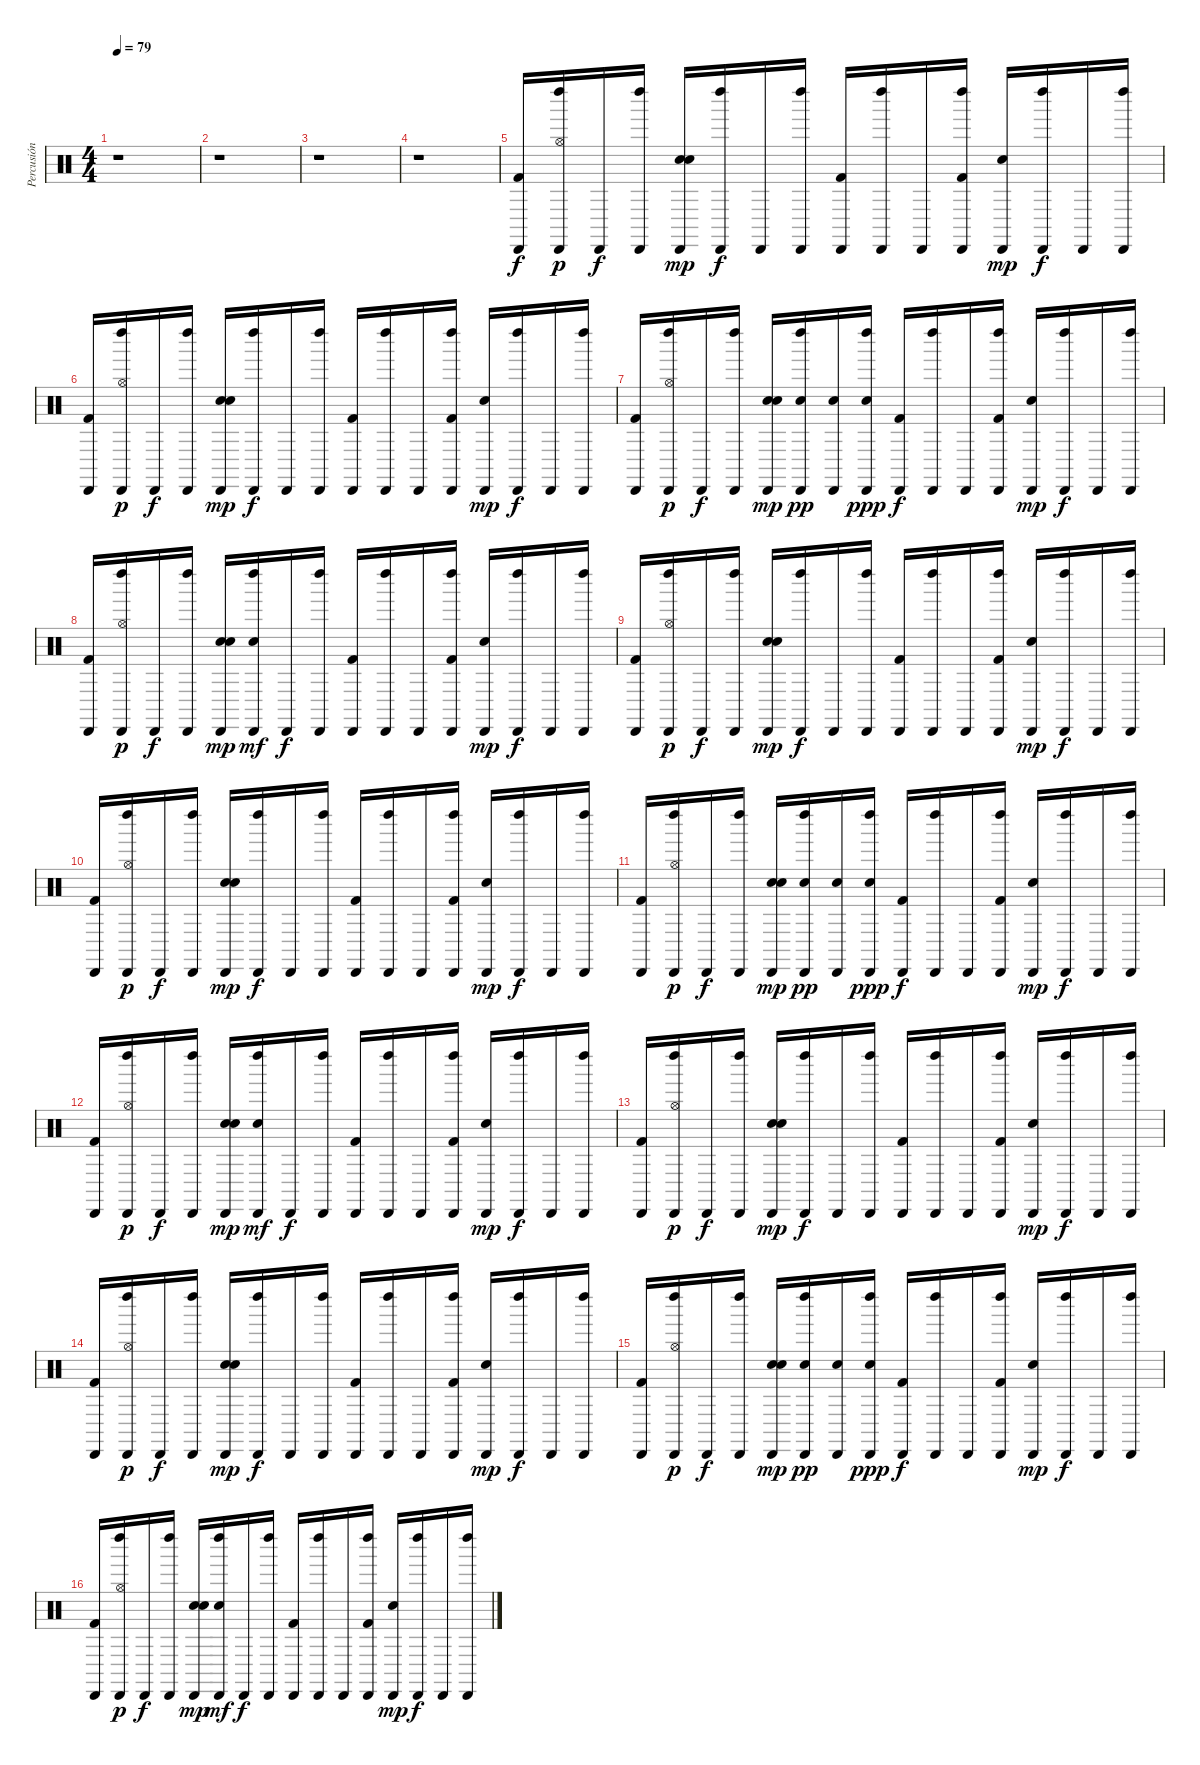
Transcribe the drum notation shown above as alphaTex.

\track ("Percusión" "Percusión") {instrument percussion}
\staff {score}
\articulation defaults
\ts (4 4)
\tempo 79
\clef neutral
\ks c
r.1{dy f} |
r.1 |
r.1 |
r.1 |
("Cabasa (hit)" "Kick (hit) 2").16 ("Cabasa (hit)" "Left Maraca (hit)" "Hi-Hat (open)").16{dy p} "Cabasa (hit)".16{dy f} ("Cabasa (hit)" "Left Maraca (hit)").16 ("Cabasa (hit)" "Electric Snare (hit)" "Snare (hit) 2").16{dy mp} ("Cabasa (hit)" "Left Maraca (hit)").16{dy f} "Cabasa (hit)".16 ("Cabasa (hit)" "Left Maraca (hit)").16 ("Cabasa (hit)" "Kick (hit) 2").16 ("Cabasa (hit)" "Left Maraca (hit)").16 "Cabasa (hit)".16 ("Cabasa (hit)" "Left Maraca (hit)" "Kick (hit) 2").16 ("Cabasa (hit)" "Electric Snare (hit)").16{dy mp} ("Cabasa (hit)" "Left Maraca (hit)").16{dy f} "Cabasa (hit)".16 ("Cabasa (hit)" "Left Maraca (hit)").16 |
("Cabasa (hit)" "Kick (hit) 2").16 ("Cabasa (hit)" "Left Maraca (hit)" "Hi-Hat (open)").16{dy p} "Cabasa (hit)".16{dy f} ("Cabasa (hit)" "Left Maraca (hit)").16 ("Cabasa (hit)" "Electric Snare (hit)" "Snare (hit) 2").16{dy mp} ("Cabasa (hit)" "Left Maraca (hit)").16{dy f} "Cabasa (hit)".16 ("Cabasa (hit)" "Left Maraca (hit)").16 ("Cabasa (hit)" "Kick (hit) 2").16 ("Cabasa (hit)" "Left Maraca (hit)").16 "Cabasa (hit)".16 ("Cabasa (hit)" "Left Maraca (hit)" "Kick (hit) 2").16 ("Cabasa (hit)" "Electric Snare (hit)").16{dy mp} ("Cabasa (hit)" "Left Maraca (hit)").16{dy f} "Cabasa (hit)".16 ("Cabasa (hit)" "Left Maraca (hit)").16 |
("Cabasa (hit)" "Kick (hit) 2").16 ("Cabasa (hit)" "Left Maraca (hit)" "Hi-Hat (open)").16{dy p} "Cabasa (hit)".16{dy f} ("Cabasa (hit)" "Left Maraca (hit)").16 ("Cabasa (hit)" "Electric Snare (hit)" "Snare (hit) 2").16{dy mp} ("Cabasa (hit)" "Left Maraca (hit)" "Electric Snare (hit)").16{dy pp} ("Cabasa (hit)" "Electric Snare (hit)").16 ("Cabasa (hit)" "Left Maraca (hit)" "Electric Snare (hit)").16{dy ppp} ("Cabasa (hit)" "Kick (hit) 2").16{dy f} ("Cabasa (hit)" "Left Maraca (hit)").16 "Cabasa (hit)".16 ("Cabasa (hit)" "Left Maraca (hit)" "Kick (hit) 2").16 ("Cabasa (hit)" "Electric Snare (hit)").16{dy mp} ("Cabasa (hit)" "Left Maraca (hit)").16{dy f} "Cabasa (hit)".16 ("Cabasa (hit)" "Left Maraca (hit)").16 |
("Cabasa (hit)" "Kick (hit) 2").16 ("Cabasa (hit)" "Left Maraca (hit)" "Hi-Hat (open)").16{dy p} "Cabasa (hit)".16{dy f} ("Cabasa (hit)" "Left Maraca (hit)").16 ("Cabasa (hit)" "Electric Snare (hit)" "Snare (hit) 2").16{dy mp} ("Cabasa (hit)" "Left Maraca (hit)" "Electric Snare (hit)").16{dy mf} "Cabasa (hit)".16{dy f} ("Cabasa (hit)" "Left Maraca (hit)").16 ("Cabasa (hit)" "Kick (hit) 2").16 ("Cabasa (hit)" "Left Maraca (hit)").16 "Cabasa (hit)".16 ("Cabasa (hit)" "Left Maraca (hit)" "Kick (hit) 2").16 ("Cabasa (hit)" "Electric Snare (hit)").16{dy mp} ("Cabasa (hit)" "Left Maraca (hit)").16{dy f} "Cabasa (hit)".16 ("Cabasa (hit)" "Left Maraca (hit)").16 |
("Cabasa (hit)" "Kick (hit) 2").16 ("Cabasa (hit)" "Left Maraca (hit)" "Hi-Hat (open)").16{dy p} "Cabasa (hit)".16{dy f} ("Cabasa (hit)" "Left Maraca (hit)").16 ("Cabasa (hit)" "Electric Snare (hit)" "Snare (hit) 2").16{dy mp} ("Cabasa (hit)" "Left Maraca (hit)").16{dy f} "Cabasa (hit)".16 ("Cabasa (hit)" "Left Maraca (hit)").16 ("Cabasa (hit)" "Kick (hit) 2").16 ("Cabasa (hit)" "Left Maraca (hit)").16 "Cabasa (hit)".16 ("Cabasa (hit)" "Left Maraca (hit)" "Kick (hit) 2").16 ("Cabasa (hit)" "Electric Snare (hit)").16{dy mp} ("Cabasa (hit)" "Left Maraca (hit)").16{dy f} "Cabasa (hit)".16 ("Cabasa (hit)" "Left Maraca (hit)").16 |
("Cabasa (hit)" "Kick (hit) 2").16 ("Cabasa (hit)" "Left Maraca (hit)" "Hi-Hat (open)").16{dy p} "Cabasa (hit)".16{dy f} ("Cabasa (hit)" "Left Maraca (hit)").16 ("Cabasa (hit)" "Electric Snare (hit)" "Snare (hit) 2").16{dy mp} ("Cabasa (hit)" "Left Maraca (hit)").16{dy f} "Cabasa (hit)".16 ("Cabasa (hit)" "Left Maraca (hit)").16 ("Cabasa (hit)" "Kick (hit) 2").16 ("Cabasa (hit)" "Left Maraca (hit)").16 "Cabasa (hit)".16 ("Cabasa (hit)" "Left Maraca (hit)" "Kick (hit) 2").16 ("Cabasa (hit)" "Electric Snare (hit)").16{dy mp} ("Cabasa (hit)" "Left Maraca (hit)").16{dy f} "Cabasa (hit)".16 ("Cabasa (hit)" "Left Maraca (hit)").16 |
("Cabasa (hit)" "Kick (hit) 2").16 ("Cabasa (hit)" "Left Maraca (hit)" "Hi-Hat (open)").16{dy p} "Cabasa (hit)".16{dy f} ("Cabasa (hit)" "Left Maraca (hit)").16 ("Cabasa (hit)" "Electric Snare (hit)" "Snare (hit) 2").16{dy mp} ("Cabasa (hit)" "Left Maraca (hit)" "Electric Snare (hit)").16{dy pp} ("Cabasa (hit)" "Electric Snare (hit)").16 ("Cabasa (hit)" "Left Maraca (hit)" "Electric Snare (hit)").16{dy ppp} ("Cabasa (hit)" "Kick (hit) 2").16{dy f} ("Cabasa (hit)" "Left Maraca (hit)").16 "Cabasa (hit)".16 ("Cabasa (hit)" "Left Maraca (hit)" "Kick (hit) 2").16 ("Cabasa (hit)" "Electric Snare (hit)").16{dy mp} ("Cabasa (hit)" "Left Maraca (hit)").16{dy f} "Cabasa (hit)".16 ("Cabasa (hit)" "Left Maraca (hit)").16 |
("Cabasa (hit)" "Kick (hit) 2").16 ("Cabasa (hit)" "Left Maraca (hit)" "Hi-Hat (open)").16{dy p} "Cabasa (hit)".16{dy f} ("Cabasa (hit)" "Left Maraca (hit)").16 ("Cabasa (hit)" "Electric Snare (hit)" "Snare (hit) 2").16{dy mp} ("Cabasa (hit)" "Left Maraca (hit)" "Electric Snare (hit)").16{dy mf} "Cabasa (hit)".16{dy f} ("Cabasa (hit)" "Left Maraca (hit)").16 ("Cabasa (hit)" "Kick (hit) 2").16 ("Cabasa (hit)" "Left Maraca (hit)").16 "Cabasa (hit)".16 ("Cabasa (hit)" "Left Maraca (hit)" "Kick (hit) 2").16 ("Cabasa (hit)" "Electric Snare (hit)").16{dy mp} ("Cabasa (hit)" "Left Maraca (hit)").16{dy f} "Cabasa (hit)".16 ("Cabasa (hit)" "Left Maraca (hit)").16 |
("Cabasa (hit)" "Kick (hit) 2").16 ("Cabasa (hit)" "Left Maraca (hit)" "Hi-Hat (open)").16{dy p} "Cabasa (hit)".16{dy f} ("Cabasa (hit)" "Left Maraca (hit)").16 ("Cabasa (hit)" "Electric Snare (hit)" "Snare (hit) 2").16{dy mp} ("Cabasa (hit)" "Left Maraca (hit)").16{dy f} "Cabasa (hit)".16 ("Cabasa (hit)" "Left Maraca (hit)").16 ("Cabasa (hit)" "Kick (hit) 2").16 ("Cabasa (hit)" "Left Maraca (hit)").16 "Cabasa (hit)".16 ("Cabasa (hit)" "Left Maraca (hit)" "Kick (hit) 2").16 ("Cabasa (hit)" "Electric Snare (hit)").16{dy mp} ("Cabasa (hit)" "Left Maraca (hit)").16{dy f} "Cabasa (hit)".16 ("Cabasa (hit)" "Left Maraca (hit)").16 |
("Cabasa (hit)" "Kick (hit) 2").16 ("Cabasa (hit)" "Left Maraca (hit)" "Hi-Hat (open)").16{dy p} "Cabasa (hit)".16{dy f} ("Cabasa (hit)" "Left Maraca (hit)").16 ("Cabasa (hit)" "Electric Snare (hit)" "Snare (hit) 2").16{dy mp} ("Cabasa (hit)" "Left Maraca (hit)").16{dy f} "Cabasa (hit)".16 ("Cabasa (hit)" "Left Maraca (hit)").16 ("Cabasa (hit)" "Kick (hit) 2").16 ("Cabasa (hit)" "Left Maraca (hit)").16 "Cabasa (hit)".16 ("Cabasa (hit)" "Left Maraca (hit)" "Kick (hit) 2").16 ("Cabasa (hit)" "Electric Snare (hit)").16{dy mp} ("Cabasa (hit)" "Left Maraca (hit)").16{dy f} "Cabasa (hit)".16 ("Cabasa (hit)" "Left Maraca (hit)").16 |
("Cabasa (hit)" "Kick (hit) 2").16 ("Cabasa (hit)" "Left Maraca (hit)" "Hi-Hat (open)").16{dy p} "Cabasa (hit)".16{dy f} ("Cabasa (hit)" "Left Maraca (hit)").16 ("Cabasa (hit)" "Electric Snare (hit)" "Snare (hit) 2").16{dy mp} ("Cabasa (hit)" "Left Maraca (hit)" "Electric Snare (hit)").16{dy pp} ("Cabasa (hit)" "Electric Snare (hit)").16 ("Cabasa (hit)" "Left Maraca (hit)" "Electric Snare (hit)").16{dy ppp} ("Cabasa (hit)" "Kick (hit) 2").16{dy f} ("Cabasa (hit)" "Left Maraca (hit)").16 "Cabasa (hit)".16 ("Cabasa (hit)" "Left Maraca (hit)" "Kick (hit) 2").16 ("Cabasa (hit)" "Electric Snare (hit)").16{dy mp} ("Cabasa (hit)" "Left Maraca (hit)").16{dy f} "Cabasa (hit)".16 ("Cabasa (hit)" "Left Maraca (hit)").16 |
("Cabasa (hit)" "Kick (hit) 2").16 ("Cabasa (hit)" "Left Maraca (hit)" "Hi-Hat (open)").16{dy p} "Cabasa (hit)".16{dy f} ("Cabasa (hit)" "Left Maraca (hit)").16 ("Cabasa (hit)" "Electric Snare (hit)" "Snare (hit) 2").16{dy mp} ("Cabasa (hit)" "Left Maraca (hit)" "Electric Snare (hit)").16{dy mf} "Cabasa (hit)".16{dy f} ("Cabasa (hit)" "Left Maraca (hit)").16 ("Cabasa (hit)" "Kick (hit) 2").16 ("Cabasa (hit)" "Left Maraca (hit)").16 "Cabasa (hit)".16 ("Cabasa (hit)" "Left Maraca (hit)" "Kick (hit) 2").16 ("Cabasa (hit)" "Electric Snare (hit)").16{dy mp} ("Cabasa (hit)" "Left Maraca (hit)").16{dy f} "Cabasa (hit)".16 ("Cabasa (hit)" "Left Maraca (hit)").16
